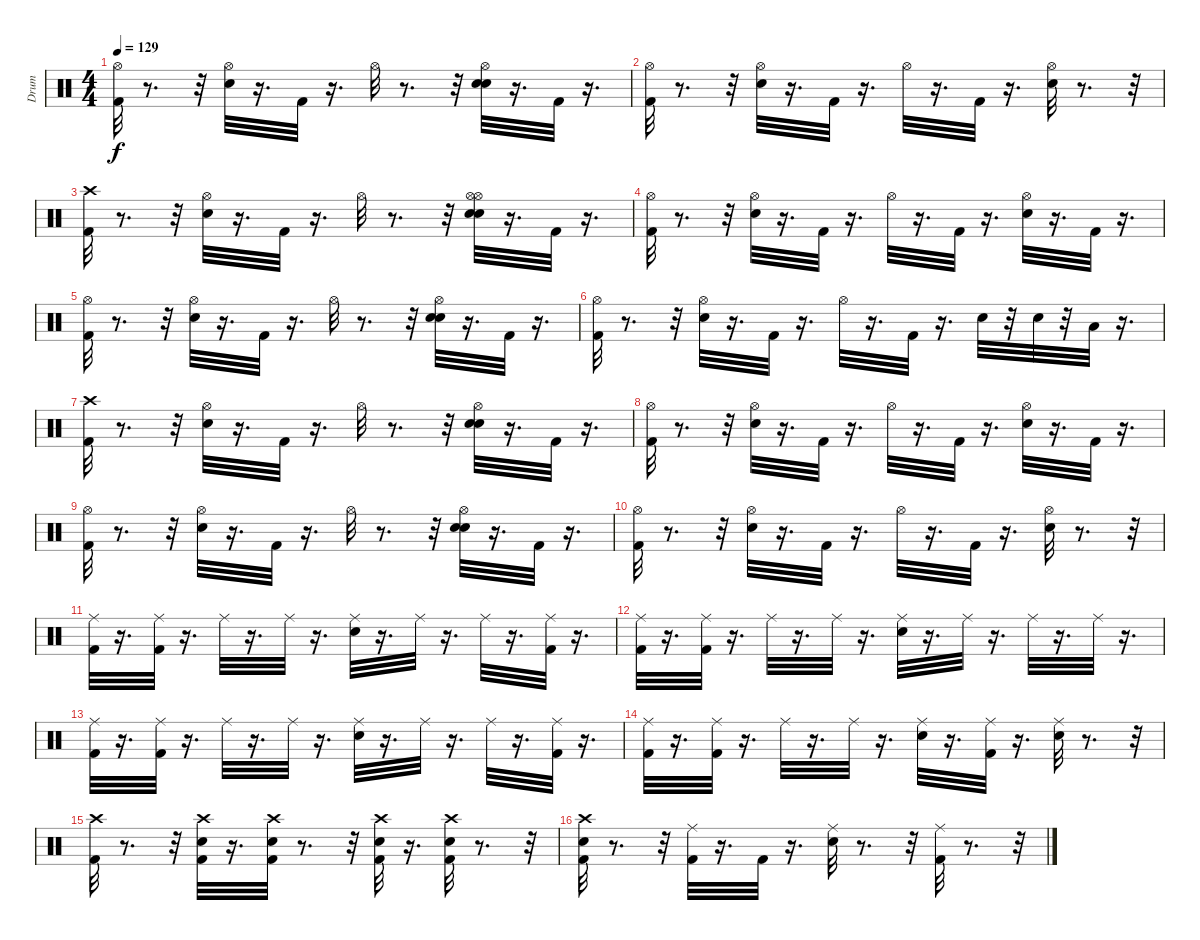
\track ("Drum" "Drum") {instrument percussion}
\staff {score}
\articulation defaults
\ts (4 4)
\tempo 129
\clef neutral
\ks c
("Hi-Hat (open)" "Kick (hit) 2").32{dy f} r.8{d} r.32 ("Snare (hit) 2" "Hi-Hat (open)").32 r.16{d} "Kick (hit) 2".32 r.16{d} "Hi-Hat (open)".32 r.8{d} r.32 ("Snare (hit) 2" "Snare (hit) 2" "Hi-Hat (open)").32 r.16{d} "Kick (hit) 2".32 r.16{d} |
("Hi-Hat (open)" "Kick (hit) 2").32 r.8{d} r.32 ("Snare (hit) 2" "Hi-Hat (open)").32 r.16{d} "Kick (hit) 2".32 r.16{d} "Hi-Hat (open)".32 r.16{d} "Kick (hit) 2".32 r.16{d} ("Snare (hit) 2" "Hi-Hat (open)").32 r.8{d} r.32 |
("Kick (hit) 2" "Crash high (hit)").32 r.8{d} r.32 ("Snare (hit) 2" "Hi-Hat (open)").32 r.16{d} "Kick (hit) 2".32 r.16{d} "Hi-Hat (open)".32 r.8{d} r.32 ("Snare (hit) 2" "Hi-Hat (open)" "Snare (hit) 2" "Hi-Hat (open)").32 r.16{d} "Kick (hit) 2".32 r.16{d} |
("Kick (hit) 2" "Hi-Hat (open)").32 r.8{d} r.32 ("Snare (hit) 2" "Hi-Hat (open)").32 r.16{d} "Kick (hit) 2".32 r.16{d} "Hi-Hat (open)".32 r.16{d} "Kick (hit) 2".32 r.16{d} ("Snare (hit) 2" "Hi-Hat (open)").32 r.16{d} "Kick (hit) 2".32 r.16{d} |
("Hi-Hat (open)" "Kick (hit) 2").32 r.8{d} r.32 ("Snare (hit) 2" "Hi-Hat (open)").32 r.16{d} "Kick (hit) 2".32 r.16{d} "Hi-Hat (open)".32 r.8{d} r.32 ("Snare (hit) 2" "Snare (hit) 2" "Hi-Hat (open)").32 r.16{d} "Kick (hit) 2".32 r.16{d} |
("Kick (hit) 2" "Hi-Hat (open)").32 r.8{d} r.32 ("Snare (hit) 2" "Hi-Hat (open)").32 r.16{d} "Kick (hit) 2".32 r.16{d} "Hi-Hat (open)".32 r.16{d} "Kick (hit) 2".32 r.16{d} "Snare (hit) 2".32 r.32 "Snare (hit) 2".32 r.32 "Low Floor Tom (hit)".32 r.16{d} |
("Kick (hit) 2" "Crash high (hit)").32 r.8{d} r.32 ("Snare (hit) 2" "Hi-Hat (open)").32 r.16{d} "Kick (hit) 2".32 r.16{d} "Hi-Hat (open)".32 r.8{d} r.32 ("Snare (hit) 2" "Snare (hit) 2" "Hi-Hat (open)").32 r.16{d} "Kick (hit) 2".32 r.16{d} |
("Kick (hit) 2" "Hi-Hat (open)").32 r.8{d} r.32 ("Snare (hit) 2" "Hi-Hat (open)").32 r.16{d} "Kick (hit) 2".32 r.16{d} "Hi-Hat (open)".32 r.16{d} "Kick (hit) 2".32 r.16{d} ("Hi-Hat (open)" "Snare (hit) 2").32 r.16{d} "Kick (hit) 2".32 r.16{d} |
("Hi-Hat (open)" "Kick (hit) 2").32 r.8{d} r.32 ("Snare (hit) 2" "Hi-Hat (open)").32 r.16{d} "Kick (hit) 2".32 r.16{d} "Hi-Hat (open)".32 r.8{d} r.32 ("Snare (hit) 2" "Snare (hit) 2" "Hi-Hat (open)").32 r.16{d} "Kick (hit) 2".32 r.16{d} |
("Hi-Hat (open)" "Kick (hit) 2").32 r.8{d} r.32 ("Snare (hit) 2" "Hi-Hat (open)").32 r.16{d} "Kick (hit) 2".32 r.16{d} "Hi-Hat (open)".32 r.16{d} "Kick (hit) 2".32 r.16{d} ("Snare (hit) 2" "Hi-Hat (open)").32 r.8{d} r.32 |
("Ride (middle)" "Kick (hit) 2").32 r.16{d} ("Kick (hit) 2" "Ride (middle)").32 r.16{d} "Ride (middle)".32 r.16{d} "Ride (middle)".32 r.16{d} ("Ride (middle)" "Snare (hit) 2").32 r.16{d} "Ride (middle)".32 r.16{d} "Ride (middle)".32 r.16{d} ("Ride (middle)" "Kick (hit) 2").32 r.16{d} |
("Kick (hit) 2" "Ride (middle)").32 r.16{d} ("Kick (hit) 2" "Ride (middle)").32 r.16{d} "Ride (middle)".32 r.16{d} "Ride (middle)".32 r.16{d} ("Ride (middle)" "Snare (hit) 2").32 r.16{d} "Ride (middle)".32 r.16{d} "Ride (middle)".32 r.16{d} "Ride (middle)".32 r.16{d} |
("Ride (middle)" "Kick (hit) 2").32 r.16{d} ("Kick (hit) 2" "Ride (middle)").32 r.16{d} "Ride (middle)".32 r.16{d} "Ride (middle)".32 r.16{d} ("Ride (middle)" "Snare (hit) 2").32 r.16{d} "Ride (middle)".32 r.16{d} "Ride (middle)".32 r.16{d} ("Kick (hit) 2" "Ride (middle)").32 r.16{d} |
("Ride (middle)" "Kick (hit) 2").32 r.16{d} ("Kick (hit) 2" "Ride (middle)").32 r.16{d} "Ride (middle)".32 r.16{d} "Ride (middle)".32 r.16{d} ("Ride (middle)" "Snare (hit) 2").32 r.16{d} ("Ride (middle)" "Kick (hit) 2").32 r.16{d} ("Ride (middle)" "Snare (hit) 2").32 r.8{d} r.32 |
("Kick (hit) 2" "Crash high (hit)").32 r.8{d} r.32 ("Kick (hit) 2" "Crash high (hit)" "Snare (hit) 2").32 r.16{d} ("Snare (hit) 2" "Kick (hit) 2" "Crash high (hit)").32 r.8{d} r.32 ("Crash high (hit)" "Kick (hit) 2" "Snare (hit) 2").32 r.16{d} ("Snare (hit) 2" "Crash high (hit)" "Kick (hit) 2").32 r.8{d} r.32 |
("Kick (hit) 2" "Snare (hit) 2" "Crash high (hit)").32 r.8{d} r.32 ("Kick (hit) 2" "Ride (middle)").32 r.16{d} "Kick (hit) 2".32 r.16{d} ("Snare (hit) 2" "Ride (middle)").32 r.8{d} r.32 ("Ride (middle)" "Kick (hit) 2").32 r.8{d} r.32
